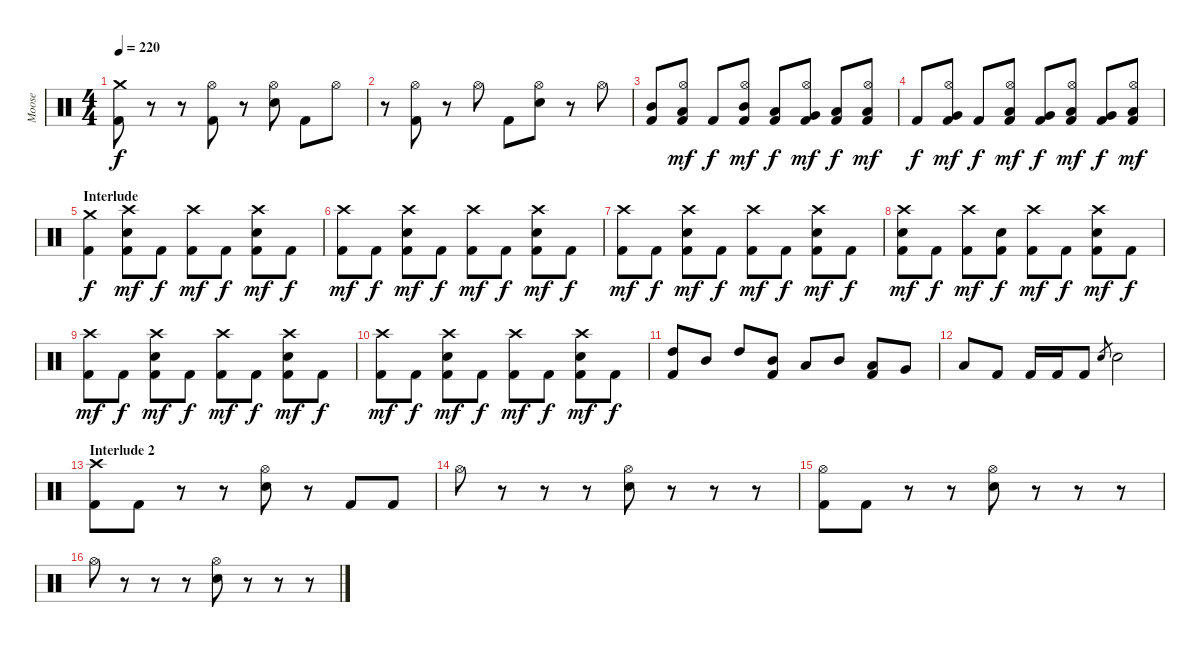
\track ("Moose" "Moose") {instrument percussion}
\staff {score}
\articulation defaults
\ts (4 4)
\tempo 220
\clef neutral
\ks c
("Kick (hit) 2" "Crash medium (hit)").8{dy f} r.8 r.8 ("Kick (hit) 2" "Hi-Hat (open)").8 r.8 ("Snare (hit) 2" "Hi-Hat (open)").8 "Kick (hit) 2".8 "Hi-Hat (open)".8 |
r.8 ("Kick (hit) 2" "Hi-Hat (open)").8 r.8 "Hi-Hat (open)".8 "Kick (hit) 2".8 ("Snare (hit) 2" "Hi-Hat (open)").8 r.8 "Hi-Hat (open)".8 |
("Kick (hit) 2" "Mid Tom (hit)").8 ("Kick (hit) 2" "Low Tom (hit)" "Hi-Hat (open)").8{dy mf} "Kick (hit) 2".8{dy f} ("Kick (hit) 2" "Mid Tom (hit)" "Hi-Hat (open)").8{dy mf} ("Kick (hit) 2" "Low Tom (hit)").8{dy f} ("Kick (hit) 2" "Very Low Tom (hit)" "Hi-Hat (open)").8{dy mf} ("Kick (hit) 2" "Low Floor Tom (hit)").8{dy f} ("Kick (hit) 2" "Low Floor Tom (hit)" "Hi-Hat (open)").8{dy mf} |
"Kick (hit) 2".8{dy f} ("Kick (hit) 2" "Very Low Tom (hit)" "Hi-Hat (open)").8{dy mf} "Kick (hit) 2".8{dy f} ("Kick (hit) 2" "Low Tom (hit)" "Hi-Hat (open)").8{dy mf} ("Kick (hit) 2" "Very Low Tom (hit)").8{dy f} ("Kick (hit) 2" "Low Floor Tom (hit)" "Hi-Hat (open)").8{dy mf} ("Kick (hit) 2" "Very Low Tom (hit)").8{dy f} ("Kick (hit) 2" "Low Floor Tom (hit)" "Hi-Hat (open)").8{dy mf} |
\section ("" "Interlude")
("Kick (hit) 2" "Crash medium (hit)").4{dy f} ("Kick (hit) 2" "Snare (hit) 2" "Crash high (hit)").8{dy mf} "Kick (hit) 2".8{dy f} ("Kick (hit) 2" "Crash high (hit)").8{dy mf} "Kick (hit) 2".8{dy f} ("Kick (hit) 2" "Snare (hit) 2" "Crash high (hit)").8{dy mf} "Kick (hit) 2".8{dy f} |
("Kick (hit) 2" "Crash high (hit)").8{dy mf} "Kick (hit) 2".8{dy f} ("Kick (hit) 2" "Snare (hit) 2" "Crash high (hit)").8{dy mf} "Kick (hit) 2".8{dy f} ("Kick (hit) 2" "Crash high (hit)").8{dy mf} "Kick (hit) 2".8{dy f} ("Kick (hit) 2" "Snare (hit) 2" "Crash high (hit)").8{dy mf} "Kick (hit) 2".8{dy f} |
("Kick (hit) 2" "Crash high (hit)").8{dy mf} "Kick (hit) 2".8{dy f} ("Kick (hit) 2" "Snare (hit) 2" "Crash high (hit)").8{dy mf} "Kick (hit) 2".8{dy f} ("Kick (hit) 2" "Crash high (hit)").8{dy mf} "Kick (hit) 2".8{dy f} ("Kick (hit) 2" "Snare (hit) 2" "Crash high (hit)").8{dy mf} "Kick (hit) 2".8{dy f} |
("Kick (hit) 2" "Snare (hit) 2" "Crash high (hit)").8{dy mf} "Kick (hit) 2".8{dy f} ("Kick (hit) 2" "Crash high (hit)").8{dy mf} ("Kick (hit) 2" "Snare (hit) 2").8{dy f} ("Kick (hit) 2" "Crash high (hit)").8{dy mf} "Kick (hit) 2".8{dy f} ("Kick (hit) 2" "Snare (hit) 2" "Crash high (hit)").8{dy mf} "Kick (hit) 2".8{dy f} |
("Kick (hit) 2" "Crash high (hit)").8{dy mf} "Kick (hit) 2".8{dy f} ("Kick (hit) 2" "Snare (hit) 2" "Crash high (hit)").8{dy mf} "Kick (hit) 2".8{dy f} ("Kick (hit) 2" "Crash high (hit)").8{dy mf} "Kick (hit) 2".8{dy f} ("Kick (hit) 2" "Snare (hit) 2" "Crash high (hit)").8{dy mf} "Kick (hit) 2".8{dy f} |
("Kick (hit) 2" "Crash high (hit)").8{dy mf} "Kick (hit) 2".8{dy f} ("Kick (hit) 2" "Snare (hit) 2" "Crash high (hit)").8{dy mf} "Kick (hit) 2".8{dy f} ("Kick (hit) 2" "Crash high (hit)").8{dy mf} "Kick (hit) 2".8{dy f} ("Kick (hit) 2" "Snare (hit) 2" "Crash high (hit)").8{dy mf} "Kick (hit) 2".8{dy f} |
("Kick (hit) 2" "High Tom (hit)").8 "Mid Tom (hit)".8 "High Tom (hit)".8 ("Kick (hit) 2" "Mid Tom (hit)").8 "Low Tom (hit)".8 "Mid Tom (hit)".8 ("Kick (hit) 2" "Low Tom (hit)").8 "Very Low Tom (hit)".8 |
"Low Tom (hit)".8 "Kick (hit) 2".8 "Kick (hit) 2".16 "Kick (hit) 2".16 "Kick (hit) 2".8 "Snare (hit) 2".8{gr} "Snare (hit) 2".2 |
\section ("" "Interlude 2")
("Kick (hit) 2" "Crash high (hit)").8 "Kick (hit) 2".8 r.8 r.8 ("Snare (hit) 2" "Hi-Hat (open)").8 r.8 "Kick (hit) 2".8 "Kick (hit) 2".8 |
"Hi-Hat (open)".8 r.8 r.8 r.8 ("Snare (hit) 2" "Hi-Hat (open)").8 r.8 r.8 r.8 |
("Kick (hit) 2" "Hi-Hat (open)").8 "Kick (hit) 2".8 r.8 r.8 ("Snare (hit) 2" "Hi-Hat (open)").8 r.8 r.8 r.8 |
"Hi-Hat (open)".8 r.8 r.8 r.8 ("Snare (hit) 2" "Hi-Hat (open)").8 r.8 r.8 r.8
